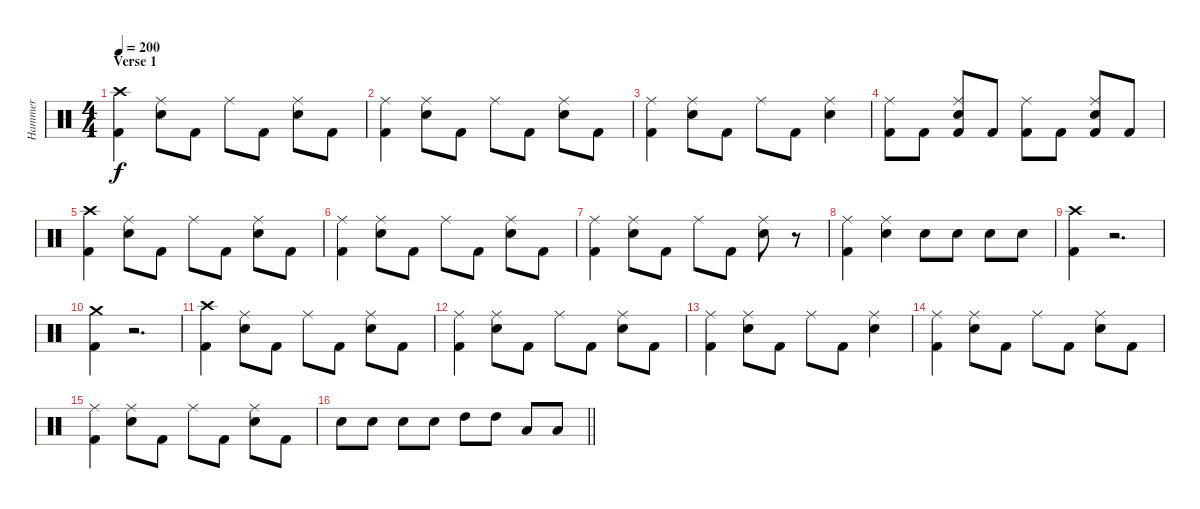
\track ("Hammer" "Hammer") {instrument percussion}
\staff {score}
\articulation defaults
\ts (4 4)
\section ("" "Verse 1")
\tempo 200
\clef neutral
\ks c
("Kick (hit) 2" "Crash high (hit)").4{dy f} ("Ride (middle)" "Snare (hit) 2").8 "Kick (hit) 2".8 "Ride (middle)".8 "Kick (hit) 2".8 ("Ride (middle)" "Snare (hit) 2").8 "Kick (hit) 2".8 |
("Kick (hit) 2" "Ride (middle)").4 ("Ride (middle)" "Snare (hit) 2").8 "Kick (hit) 2".8 "Ride (middle)".8 "Kick (hit) 2".8 ("Ride (middle)" "Snare (hit) 2").8 "Kick (hit) 2".8 |
("Kick (hit) 2" "Ride (middle)").4 ("Snare (hit) 2" "Ride (middle)").8 "Kick (hit) 2".8 "Ride (middle)".8 "Kick (hit) 2".8 ("Ride (middle)" "Snare (hit) 2").4 |
("Kick (hit) 2" "Ride (middle)").8 "Kick (hit) 2".8 ("Ride (middle)" "Kick (hit) 2" "Snare (hit) 2").8 "Kick (hit) 2".8 ("Kick (hit) 2" "Ride (middle)").8 "Kick (hit) 2".8 ("Kick (hit) 2" "Snare (hit) 2" "Ride (middle)").8 "Kick (hit) 2".8 |
("Kick (hit) 2" "Crash high (hit)").4 ("Ride (middle)" "Snare (hit) 2").8 "Kick (hit) 2".8 "Ride (middle)".8 "Kick (hit) 2".8 ("Ride (middle)" "Snare (hit) 2").8 "Kick (hit) 2".8 |
("Kick (hit) 2" "Ride (middle)").4 ("Ride (middle)" "Snare (hit) 2").8 "Kick (hit) 2".8 "Ride (middle)".8 "Kick (hit) 2".8 ("Ride (middle)" "Snare (hit) 2").8 "Kick (hit) 2".8 |
("Kick (hit) 2" "Ride (middle)").4 ("Snare (hit) 2" "Ride (middle)").8 "Kick (hit) 2".8 "Ride (middle)".8 "Kick (hit) 2".8 ("Ride (middle)" "Snare (hit) 2").8 r.8 |
("Kick (hit) 2" "Ride (middle)").4 ("Snare (hit) 2" "Ride (middle)").4 "Snare (hit) 2".8 "Snare (hit) 2".8 "Snare (hit) 2".8 "Snare (hit) 2".8 |
("Crash high (hit)" "Kick (hit) 2").4 r.2{d} |
("Crash medium (hit)" "Kick (hit) 2").4 r.2{d} |
("Kick (hit) 2" "Crash high (hit)").4 ("Ride (middle)" "Snare (hit) 2").8 "Kick (hit) 2".8 "Ride (middle)".8 "Kick (hit) 2".8 ("Ride (middle)" "Snare (hit) 2").8 "Kick (hit) 2".8 |
("Kick (hit) 2" "Ride (middle)").4 ("Ride (middle)" "Snare (hit) 2").8 "Kick (hit) 2".8 "Ride (middle)".8 "Kick (hit) 2".8 ("Ride (middle)" "Snare (hit) 2").8 "Kick (hit) 2".8 |
("Kick (hit) 2" "Ride (middle)").4 ("Snare (hit) 2" "Ride (middle)").8 "Kick (hit) 2".8 "Ride (middle)".8 "Kick (hit) 2".8 ("Ride (middle)" "Snare (hit) 2").4 |
("Kick (hit) 2" "Ride (middle)").4 ("Ride (middle)" "Snare (hit) 2").8 "Kick (hit) 2".8 "Ride (middle)".8 "Kick (hit) 2".8 ("Ride (middle)" "Snare (hit) 2").8 "Kick (hit) 2".8 |
("Kick (hit) 2" "Ride (middle)").4 ("Ride (middle)" "Snare (hit) 2").8 "Kick (hit) 2".8 "Ride (middle)".8 "Kick (hit) 2".8 ("Ride (middle)" "Snare (hit) 2").8 "Kick (hit) 2".8 |
\barLineRight lightlight "Snare (hit) 2".8 "Snare (hit) 2".8 "Snare (hit) 2".8 "Snare (hit) 2".8 "High Tom (hit)".8 "High Tom (hit)".8 "Low Tom (hit)".8 "Low Tom (hit)".8
